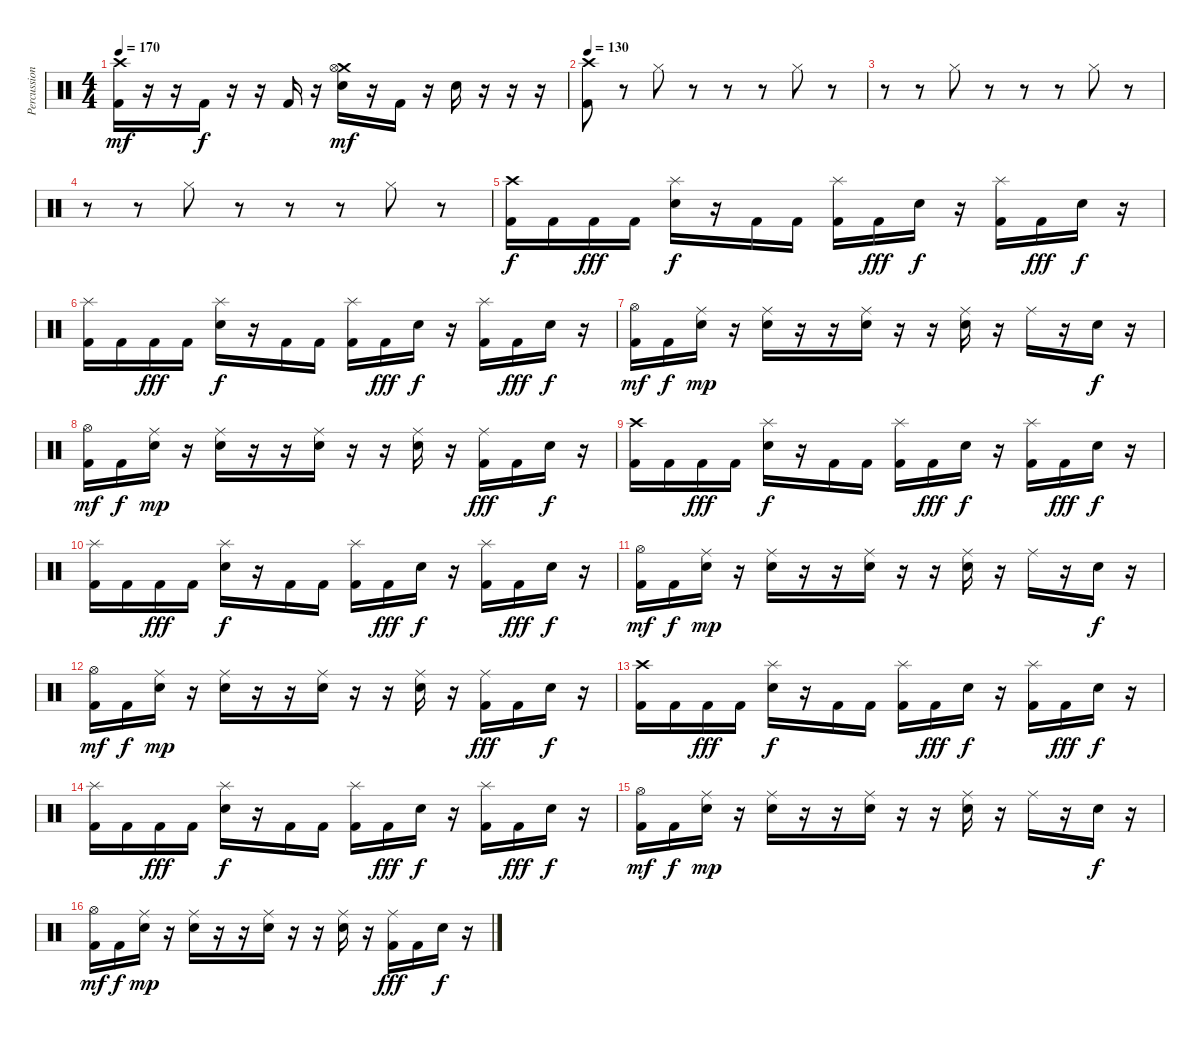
\track ("Percussion" "Percussion") {instrument percussion}
\staff {score}
\articulation defaults
\ts (4 4)
\tempo 170
\clef neutral
\ks c
("Crash high (hit)" "Kick (hit) 2").16{dy mf} r.16 r.16 "Kick (hit) 2".16{dy f} r.16 r.16 "Kick (hit) 2".16 r.16 ("Crash medium (hit)" "Hi-Hat (open)" "Electric Snare (hit)").16{dy mf} r.16 "Kick (hit) 2".16 r.16 "Electric Snare (hit)".16 r.16 r.16 r.16 |
\tempo 130
("Crash high (hit)" "Kick (hit) 2").8 r.8 "Hi-Hat (closed)".8 r.8 r.8 r.8 "Hi-Hat (closed)".8 r.8 |
r.8 r.8 "Hi-Hat (closed)".8 r.8 r.8 r.8 "Hi-Hat (closed)".8 r.8 |
r.8 r.8 "Hi-Hat (closed)".8 r.8 r.8 r.8 "Hi-Hat (closed)".8 r.8 |
("Crash high (hit)" "Kick (hit) 2").16{dy f} "Kick (hit) 2".16 "Kick (hit) 2".16{dy fff} "Kick (hit) 2".16 ("Splash (hit)" "Electric Snare (hit)").16{dy f} r.16 "Kick (hit) 2".16 "Kick (hit) 2".16 ("Splash (hit)" "Kick (hit) 2").16 "Kick (hit) 2".16{dy fff} "Electric Snare (hit)".16{dy f} r.16 ("Splash (hit)" "Kick (hit) 2").16 "Kick (hit) 2".16{dy fff} "Electric Snare (hit)".16{dy f} r.16 |
("Splash (hit)" "Kick (hit) 2").16 "Kick (hit) 2".16 "Kick (hit) 2".16{dy fff} "Kick (hit) 2".16 ("Splash (hit)" "Electric Snare (hit)").16{dy f} r.16 "Kick (hit) 2".16 "Kick (hit) 2".16 ("Splash (hit)" "Kick (hit) 2").16 "Kick (hit) 2".16{dy fff} "Electric Snare (hit)".16{dy f} r.16 ("Splash (hit)" "Kick (hit) 2").16 "Kick (hit) 2".16{dy fff} "Electric Snare (hit)".16{dy f} r.16 |
("Hi-Hat (open)" "Kick (hit) 2").16{dy mf} "Kick (hit) 2".16{dy f} ("Ride (middle)" "Electric Snare (hit)").16{dy mp} r.16 ("Ride (middle)" "Electric Snare (hit)").16 r.16 r.16 ("Ride (middle)" "Electric Snare (hit)").16 r.16 r.16 ("Ride (middle)" "Electric Snare (hit)").16 r.16 "Ride (middle)".16 r.16 "Electric Snare (hit)".16{dy f} r.16 |
("Hi-Hat (open)" "Kick (hit) 2").16{dy mf} "Kick (hit) 2".16{dy f} ("Ride (middle)" "Electric Snare (hit)").16{dy mp} r.16 ("Ride (middle)" "Electric Snare (hit)").16 r.16 r.16 ("Ride (middle)" "Electric Snare (hit)").16 r.16 r.16 ("Ride (middle)" "Electric Snare (hit)").16 r.16 ("Ride (middle)" "Kick (hit) 2").16{dy fff} "Kick (hit) 2".16 "Electric Snare (hit)".16{dy f} r.16 |
("Crash high (hit)" "Kick (hit) 2").16 "Kick (hit) 2".16 "Kick (hit) 2".16{dy fff} "Kick (hit) 2".16 ("Splash (hit)" "Electric Snare (hit)").16{dy f} r.16 "Kick (hit) 2".16 "Kick (hit) 2".16 ("Splash (hit)" "Kick (hit) 2").16 "Kick (hit) 2".16{dy fff} "Electric Snare (hit)".16{dy f} r.16 ("Splash (hit)" "Kick (hit) 2").16 "Kick (hit) 2".16{dy fff} "Electric Snare (hit)".16{dy f} r.16 |
("Splash (hit)" "Kick (hit) 2").16 "Kick (hit) 2".16 "Kick (hit) 2".16{dy fff} "Kick (hit) 2".16 ("Splash (hit)" "Electric Snare (hit)").16{dy f} r.16 "Kick (hit) 2".16 "Kick (hit) 2".16 ("Splash (hit)" "Kick (hit) 2").16 "Kick (hit) 2".16{dy fff} "Electric Snare (hit)".16{dy f} r.16 ("Splash (hit)" "Kick (hit) 2").16 "Kick (hit) 2".16{dy fff} "Electric Snare (hit)".16{dy f} r.16 |
("Hi-Hat (open)" "Kick (hit) 2").16{dy mf} "Kick (hit) 2".16{dy f} ("Ride (middle)" "Electric Snare (hit)").16{dy mp} r.16 ("Ride (middle)" "Electric Snare (hit)").16 r.16 r.16 ("Ride (middle)" "Electric Snare (hit)").16 r.16 r.16 ("Ride (middle)" "Electric Snare (hit)").16 r.16 "Ride (middle)".16 r.16 "Electric Snare (hit)".16{dy f} r.16 |
("Hi-Hat (open)" "Kick (hit) 2").16{dy mf} "Kick (hit) 2".16{dy f} ("Ride (middle)" "Electric Snare (hit)").16{dy mp} r.16 ("Ride (middle)" "Electric Snare (hit)").16 r.16 r.16 ("Ride (middle)" "Electric Snare (hit)").16 r.16 r.16 ("Ride (middle)" "Electric Snare (hit)").16 r.16 ("Ride (middle)" "Kick (hit) 2").16{dy fff} "Kick (hit) 2".16 "Electric Snare (hit)".16{dy f} r.16 |
("Crash high (hit)" "Kick (hit) 2").16 "Kick (hit) 2".16 "Kick (hit) 2".16{dy fff} "Kick (hit) 2".16 ("Splash (hit)" "Electric Snare (hit)").16{dy f} r.16 "Kick (hit) 2".16 "Kick (hit) 2".16 ("Splash (hit)" "Kick (hit) 2").16 "Kick (hit) 2".16{dy fff} "Electric Snare (hit)".16{dy f} r.16 ("Splash (hit)" "Kick (hit) 2").16 "Kick (hit) 2".16{dy fff} "Electric Snare (hit)".16{dy f} r.16 |
("Splash (hit)" "Kick (hit) 2").16 "Kick (hit) 2".16 "Kick (hit) 2".16{dy fff} "Kick (hit) 2".16 ("Splash (hit)" "Electric Snare (hit)").16{dy f} r.16 "Kick (hit) 2".16 "Kick (hit) 2".16 ("Splash (hit)" "Kick (hit) 2").16 "Kick (hit) 2".16{dy fff} "Electric Snare (hit)".16{dy f} r.16 ("Splash (hit)" "Kick (hit) 2").16 "Kick (hit) 2".16{dy fff} "Electric Snare (hit)".16{dy f} r.16 |
("Hi-Hat (open)" "Kick (hit) 2").16{dy mf} "Kick (hit) 2".16{dy f} ("Ride (middle)" "Electric Snare (hit)").16{dy mp} r.16 ("Ride (middle)" "Electric Snare (hit)").16 r.16 r.16 ("Ride (middle)" "Electric Snare (hit)").16 r.16 r.16 ("Ride (middle)" "Electric Snare (hit)").16 r.16 "Ride (middle)".16 r.16 "Electric Snare (hit)".16{dy f} r.16 |
("Hi-Hat (open)" "Kick (hit) 2").16{dy mf} "Kick (hit) 2".16{dy f} ("Ride (middle)" "Electric Snare (hit)").16{dy mp} r.16 ("Ride (middle)" "Electric Snare (hit)").16 r.16 r.16 ("Ride (middle)" "Electric Snare (hit)").16 r.16 r.16 ("Ride (middle)" "Electric Snare (hit)").16 r.16 ("Ride (middle)" "Kick (hit) 2").16{dy fff} "Kick (hit) 2".16 "Electric Snare (hit)".16{dy f} r.16
